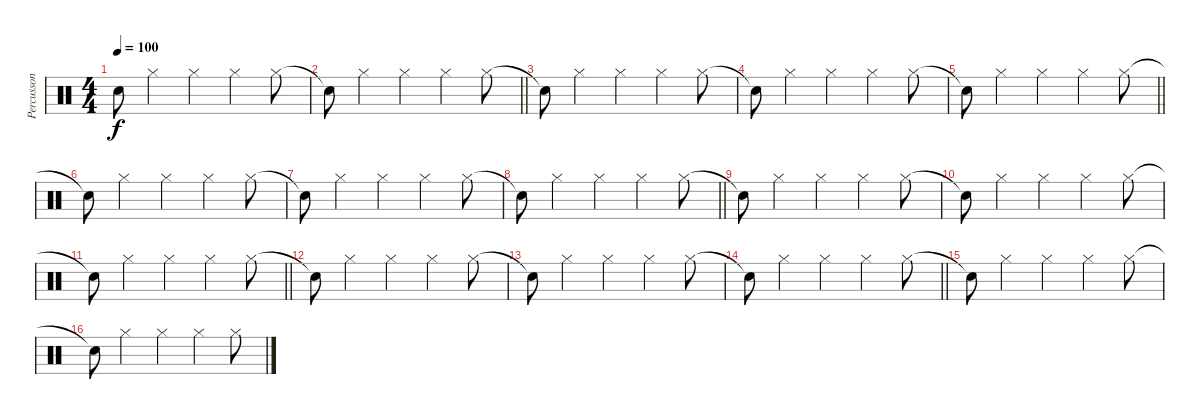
\track ("Percusson" "Percusson") {instrument percussion}
\staff {score}
\articulation defaults
\ts (4 4)
\tempo 100
\clef neutral
\ks c "Snare (hit)"{t}.8{dy f} "Hi-Hat (closed)".4 "Hi-Hat (closed)".4 "Hi-Hat (closed)".4 "Hi-Hat (closed)".8
|
\barLineRight lightlight "Snare (hit)"{t}.8 "Hi-Hat (closed)".4 "Hi-Hat (closed)".4 "Hi-Hat (closed)".4 "Hi-Hat (closed)".8
|
"Snare (hit)"{t}.8 "Hi-Hat (closed)".4 "Hi-Hat (closed)".4 "Hi-Hat (closed)".4 "Hi-Hat (closed)".8 |
"Snare (hit)"{t}.8 "Hi-Hat (closed)".4 "Hi-Hat (closed)".4 "Hi-Hat (closed)".4 "Hi-Hat (closed)".8 |
\barLineRight lightlight "Snare (hit)"{t}.8 "Hi-Hat (closed)".4 "Hi-Hat (closed)".4 "Hi-Hat (closed)".4 "Hi-Hat (closed)".8
|
"Snare (hit)"{t}.8 "Hi-Hat (closed)".4 "Hi-Hat (closed)".4 "Hi-Hat (closed)".4 "Hi-Hat (closed)".8 |
"Snare (hit)"{t}.8 "Hi-Hat (closed)".4 "Hi-Hat (closed)".4 "Hi-Hat (closed)".4 "Hi-Hat (closed)".8 |
\barLineRight lightlight "Snare (hit)"{t}.8 "Hi-Hat (closed)".4 "Hi-Hat (closed)".4 "Hi-Hat (closed)".4 "Hi-Hat (closed)".8
|
"Snare (hit)"{t}.8 "Hi-Hat (closed)".4 "Hi-Hat (closed)".4 "Hi-Hat (closed)".4 "Hi-Hat (closed)".8 |
"Snare (hit)"{t}.8 "Hi-Hat (closed)".4 "Hi-Hat (closed)".4 "Hi-Hat (closed)".4 "Hi-Hat (closed)".8 |
\barLineRight lightlight "Snare (hit)"{t}.8 "Hi-Hat (closed)".4 "Hi-Hat (closed)".4 "Hi-Hat (closed)".4 "Hi-Hat (closed)".8
|
"Snare (hit)"{t}.8 "Hi-Hat (closed)".4 "Hi-Hat (closed)".4 "Hi-Hat (closed)".4 "Hi-Hat (closed)".8 |
"Snare (hit)"{t}.8 "Hi-Hat (closed)".4 "Hi-Hat (closed)".4 "Hi-Hat (closed)".4 "Hi-Hat (closed)".8 |
\barLineRight lightlight "Snare (hit)"{t}.8 "Hi-Hat (closed)".4 "Hi-Hat (closed)".4 "Hi-Hat (closed)".4 "Hi-Hat (closed)".8
|
"Snare (hit)"{t}.8 "Hi-Hat (closed)".4 "Hi-Hat (closed)".4 "Hi-Hat (closed)".4 "Hi-Hat (closed)".8 |
"Snare (hit)"{t}.8 "Hi-Hat (closed)".4 "Hi-Hat (closed)".4 "Hi-Hat (closed)".4 "Hi-Hat (closed)".8
